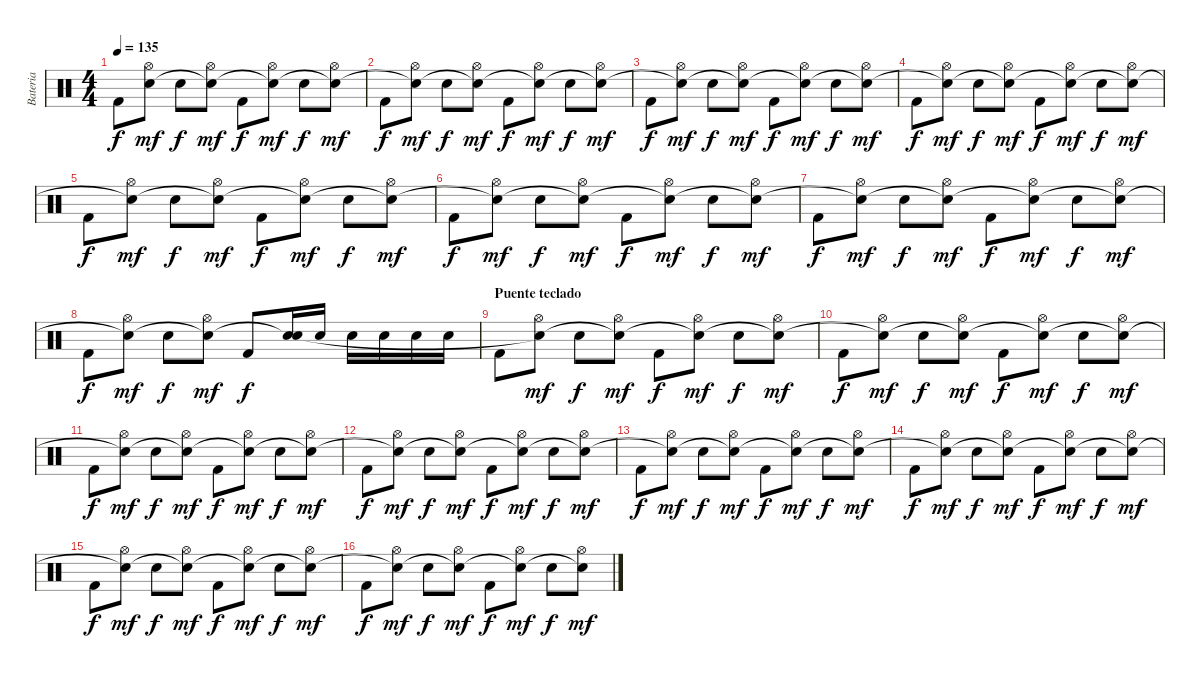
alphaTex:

\track ("Bateria" "Bateria") {instrument percussion}
\staff {score}
\articulation defaults
\ts (4 4)
\tempo 135
\clef neutral
\ks c "Kick (hit) 2".8{dy f}
("Hi-Hat (open)" "Snare (hit)"{t}).8{dy mf} "Electric Snare (hit)".8{dy f} ("Hi-Hat (open)" "Snare (hit)"{t}).8{dy mf} "Kick (hit) 2".8{dy f} ("Hi-Hat (open)" "Snare (hit)"{t}).8{dy mf} "Electric Snare (hit)".8{dy f} ("Hi-Hat (open)" "Snare (hit)"{t}).8{dy mf} |
"Kick (hit) 2".8{dy f} ("Hi-Hat (open)" "Snare (hit)"{t}).8{dy mf} "Electric Snare (hit)".8{dy f} ("Hi-Hat (open)" "Snare (hit)"{t}).8{dy mf} "Kick (hit) 2".8{dy f} ("Hi-Hat (open)" "Snare (hit)"{t}).8{dy mf} "Electric Snare (hit)".8{dy f} ("Hi-Hat (open)" "Snare (hit)"{t}).8{dy mf} |
"Kick (hit) 2".8{dy f} ("Hi-Hat (open)" "Snare (hit)"{t}).8{dy mf} "Electric Snare (hit)".8{dy f} ("Hi-Hat (open)" "Snare (hit)"{t}).8{dy mf} "Kick (hit) 2".8{dy f} ("Hi-Hat (open)" "Snare (hit)"{t}).8{dy mf} "Electric Snare (hit)".8{dy f} ("Hi-Hat (open)" "Snare (hit)"{t}).8{dy mf} |
"Kick (hit) 2".8{dy f} ("Hi-Hat (open)" "Snare (hit)"{t}).8{dy mf} "Electric Snare (hit)".8{dy f} ("Hi-Hat (open)" "Snare (hit)"{t}).8{dy mf} "Kick (hit) 2".8{dy f} ("Hi-Hat (open)" "Snare (hit)"{t}).8{dy mf} "Electric Snare (hit)".8{dy f} ("Hi-Hat (open)" "Snare (hit)"{t}).8{dy mf} |
"Kick (hit) 2".8{dy f} ("Hi-Hat (open)" "Snare (hit)"{t}).8{dy mf} "Electric Snare (hit)".8{dy f} ("Hi-Hat (open)" "Snare (hit)"{t}).8{dy mf} "Kick (hit) 2".8{dy f} ("Hi-Hat (open)" "Snare (hit)"{t}).8{dy mf} "Electric Snare (hit)".8{dy f} ("Hi-Hat (open)" "Snare (hit)"{t}).8{dy mf} |
"Kick (hit) 2".8{dy f} ("Hi-Hat (open)" "Snare (hit)"{t}).8{dy mf} "Electric Snare (hit)".8{dy f} ("Hi-Hat (open)" "Snare (hit)"{t}).8{dy mf} "Kick (hit) 2".8{dy f} ("Hi-Hat (open)" "Snare (hit)"{t}).8{dy mf} "Electric Snare (hit)".8{dy f} ("Hi-Hat (open)" "Snare (hit)"{t}).8{dy mf} |
"Kick (hit) 2".8{dy f} ("Hi-Hat (open)" "Snare (hit)"{t}).8{dy mf} "Electric Snare (hit)".8{dy f} ("Hi-Hat (open)" "Snare (hit)"{t}).8{dy mf} "Kick (hit) 2".8{dy f} ("Hi-Hat (open)" "Snare (hit)"{t}).8{dy mf} "Electric Snare (hit)".8{dy f} ("Hi-Hat (open)" "Snare (hit)"{t}).8{dy mf} |
"Kick (hit) 2".8{dy f} ("Hi-Hat (open)" "Snare (hit)"{t}).8{dy mf} "Electric Snare (hit)".8{dy f} ("Hi-Hat (open)" "Snare (hit)"{t}).8{dy mf} "Kick (hit) 2".8{dy f} ("Electric Snare (hit)" "Snare (hit)"{t}).16 "Electric Snare (hit)".16 "Electric Snare (hit)".16 "Electric Snare (hit)".16 "Electric Snare (hit)".16 "Electric Snare (hit)".16 |
\section ("" "Puente teclado")
"Kick (hit) 2".8 ("Hi-Hat (open)" "Snare (hit)"{t}).8{dy mf} "Electric Snare (hit)".8{dy f} ("Hi-Hat (open)" "Snare (hit)"{t}).8{dy mf} "Kick (hit) 2".8{dy f} ("Hi-Hat (open)" "Snare (hit)"{t}).8{dy mf} "Electric Snare (hit)".8{dy f} ("Hi-Hat (open)" "Snare (hit)"{t}).8{dy mf} |
"Kick (hit) 2".8{dy f} ("Hi-Hat (open)" "Snare (hit)"{t}).8{dy mf} "Electric Snare (hit)".8{dy f} ("Hi-Hat (open)" "Snare (hit)"{t}).8{dy mf} "Kick (hit) 2".8{dy f} ("Hi-Hat (open)" "Snare (hit)"{t}).8{dy mf} "Electric Snare (hit)".8{dy f} ("Hi-Hat (open)" "Snare (hit)"{t}).8{dy mf} |
"Kick (hit) 2".8{dy f} ("Hi-Hat (open)" "Snare (hit)"{t}).8{dy mf} "Electric Snare (hit)".8{dy f} ("Hi-Hat (open)" "Snare (hit)"{t}).8{dy mf} "Kick (hit) 2".8{dy f} ("Hi-Hat (open)" "Snare (hit)"{t}).8{dy mf} "Electric Snare (hit)".8{dy f} ("Hi-Hat (open)" "Snare (hit)"{t}).8{dy mf} |
"Kick (hit) 2".8{dy f} ("Hi-Hat (open)" "Snare (hit)"{t}).8{dy mf} "Electric Snare (hit)".8{dy f} ("Hi-Hat (open)" "Snare (hit)"{t}).8{dy mf} "Kick (hit) 2".8{dy f} ("Hi-Hat (open)" "Snare (hit)"{t}).8{dy mf} "Electric Snare (hit)".8{dy f} ("Hi-Hat (open)" "Snare (hit)"{t}).8{dy mf} |
"Kick (hit) 2".8{dy f} ("Hi-Hat (open)" "Snare (hit)"{t}).8{dy mf} "Electric Snare (hit)".8{dy f} ("Hi-Hat (open)" "Snare (hit)"{t}).8{dy mf} "Kick (hit) 2".8{dy f} ("Hi-Hat (open)" "Snare (hit)"{t}).8{dy mf} "Electric Snare (hit)".8{dy f} ("Hi-Hat (open)" "Snare (hit)"{t}).8{dy mf} |
"Kick (hit) 2".8{dy f} ("Hi-Hat (open)" "Snare (hit)"{t}).8{dy mf} "Electric Snare (hit)".8{dy f} ("Hi-Hat (open)" "Snare (hit)"{t}).8{dy mf} "Kick (hit) 2".8{dy f} ("Hi-Hat (open)" "Snare (hit)"{t}).8{dy mf} "Electric Snare (hit)".8{dy f} ("Hi-Hat (open)" "Snare (hit)"{t}).8{dy mf} |
"Kick (hit) 2".8{dy f} ("Hi-Hat (open)" "Snare (hit)"{t}).8{dy mf} "Electric Snare (hit)".8{dy f} ("Hi-Hat (open)" "Snare (hit)"{t}).8{dy mf} "Kick (hit) 2".8{dy f} ("Hi-Hat (open)" "Snare (hit)"{t}).8{dy mf} "Electric Snare (hit)".8{dy f} ("Hi-Hat (open)" "Snare (hit)"{t}).8{dy mf} |
"Kick (hit) 2".8{dy f} ("Hi-Hat (open)" "Snare (hit)"{t}).8{dy mf} "Electric Snare (hit)".8{dy f} ("Hi-Hat (open)" "Snare (hit)"{t}).8{dy mf} "Kick (hit) 2".8{dy f} ("Hi-Hat (open)" "Snare (hit)"{t}).8{dy mf} "Electric Snare (hit)".8{dy f} ("Hi-Hat (open)" "Snare (hit)"{t}).8{dy mf}
